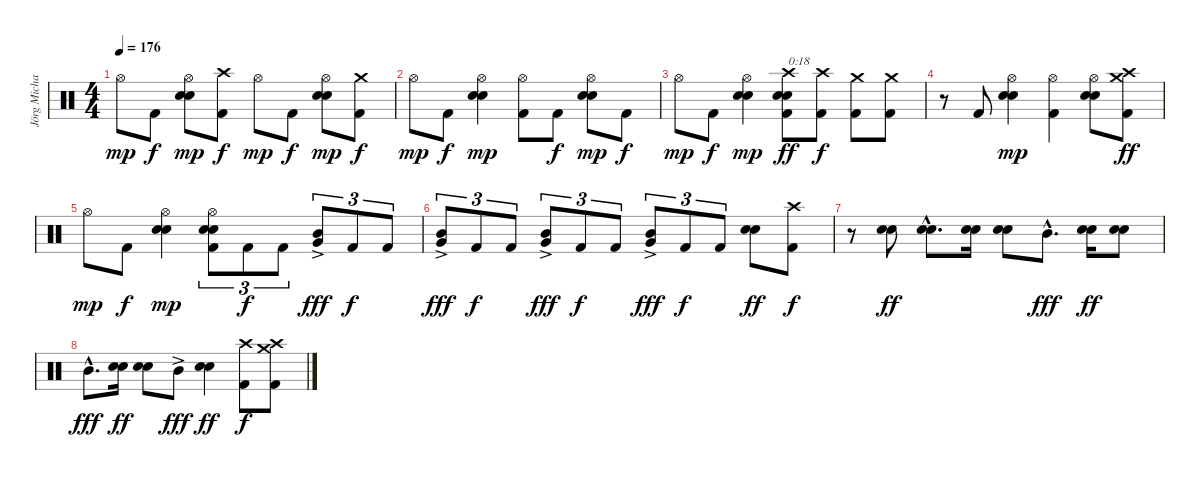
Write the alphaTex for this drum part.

\track ("Jörg Michael" "Jörg Micha") {instrument percussion}
\staff {score}
\articulation defaults
\ts (4 4)
\tempo 176
\clef neutral
\ks c "Hi-Hat (open)".8{dy mp} "Kick (hit) 2".8{dy f}
("Snare (hit) 2" "Electric Snare (hit)" "Hi-Hat (open)").8{dy mp} ("Kick (hit) 2" "Crash high (hit)").8{dy f} "Hi-Hat (open)".8{dy mp} "Kick (hit) 2".8{dy f} ("Snare (hit) 2" "Electric Snare (hit)" "Hi-Hat (open)").8{dy mp} ("Kick (hit) 2" "Crash medium (hit)").8{dy f} |
"Hi-Hat (open)".8{dy mp} "Kick (hit) 2".8{dy f} ("Snare (hit) 2" "Electric Snare (hit)" "Hi-Hat (open)").4{dy mp} ("Kick (hit) 2" "Hi-Hat (open)").8 "Kick (hit) 2".8{dy f} ("Snare (hit) 2" "Electric Snare (hit)" "Hi-Hat (open)").8{dy mp} "Kick (hit) 2".8{dy f} |
"Hi-Hat (open)".8{dy mp} "Kick (hit) 2".8{dy f} ("Snare (hit) 2" "Electric Snare (hit)" "Hi-Hat (open)").4{dy mp} ("Kick (hit) 2" "Snare (hit) 2" "Electric Snare (hit)" "Crash high (hit)").8{txt "0:18" dy ff} ("Kick (hit) 2" "Crash high (hit)").8{dy f} ("Kick (hit) 2" "Crash medium (hit)").8 ("Kick (hit) 2" "Crash medium (hit)").8 |
r.8 "Kick (hit) 2".8 ("Snare (hit) 2" "Electric Snare (hit)" "Hi-Hat (open)").4{dy mp} ("Kick (hit) 2" "Hi-Hat (open)").4 ("Snare (hit) 2" "Electric Snare (hit)" "Hi-Hat (open)").8 ("Kick (hit) 2" "Crash high (hit)" "Crash medium (hit)").8{dy ff} |
"Hi-Hat (open)".8{dy mp} "Kick (hit) 2".8{dy f} ("Snare (hit) 2" "Electric Snare (hit)" "Hi-Hat (open)").4{dy mp} ("Kick (hit) 2" "Snare (hit) 2" "Electric Snare (hit)" "Hi-Hat (open)").8{tu (3 2)} "Kick (hit) 2".8{tu (3 2) dy f} "Kick (hit) 2".8{tu (3 2)} ("Mid Tom (hit)"{ac} "Very Low Tom (hit)"{ac}).8{tu (3 2) dy fff} "Kick (hit) 2".8{tu (3 2) dy f} "Kick (hit) 2".8{tu (3 2)} |
("Mid Tom (hit)"{ac} "Very Low Tom (hit)"{ac}).8{tu (3 2) dy fff} "Kick (hit) 2".8{tu (3 2) dy f} "Kick (hit) 2".8{tu (3 2)} ("Mid Tom (hit)"{ac} "Very Low Tom (hit)"{ac}).8{tu (3 2) dy fff} "Kick (hit) 2".8{tu (3 2) dy f} "Kick (hit) 2".8{tu (3 2)} ("Mid Tom (hit)"{ac} "Very Low Tom (hit)"{ac}).8{tu (3 2) dy fff} "Kick (hit) 2".8{tu (3 2) dy f} "Kick (hit) 2".8{tu (3 2)} ("Snare (hit) 2" "Electric Snare (hit)").8{dy ff} ("Kick (hit) 2" "Crash high (hit)").8{dy f} |
r.8 ("Snare (hit) 2" "Electric Snare (hit)").8{dy ff} ("Snare (hit) 2"{hac} "Electric Snare (hit)"{hac}).8{d} ("Snare (hit) 2" "Electric Snare (hit)").16 ("Snare (hit) 2" "Electric Snare (hit)").8 "Mid Tom (hit)"{hac}.8{d dy fff} ("Snare (hit) 2" "Electric Snare (hit)").16{dy ff} ("Snare (hit) 2" "Electric Snare (hit)").8 |
"Mid Tom (hit)"{hac}.8{d dy fff} ("Snare (hit) 2" "Electric Snare (hit)").16{dy ff} ("Snare (hit) 2" "Electric Snare (hit)").8 "Mid Tom (hit)"{ac}.8{dy fff} ("Snare (hit) 2" "Electric Snare (hit)").4{dy ff} ("Kick (hit) 2" "Crash high (hit)").8{dy f} ("Kick (hit) 2" "Crash medium (hit)" "Crash high (hit)").8
